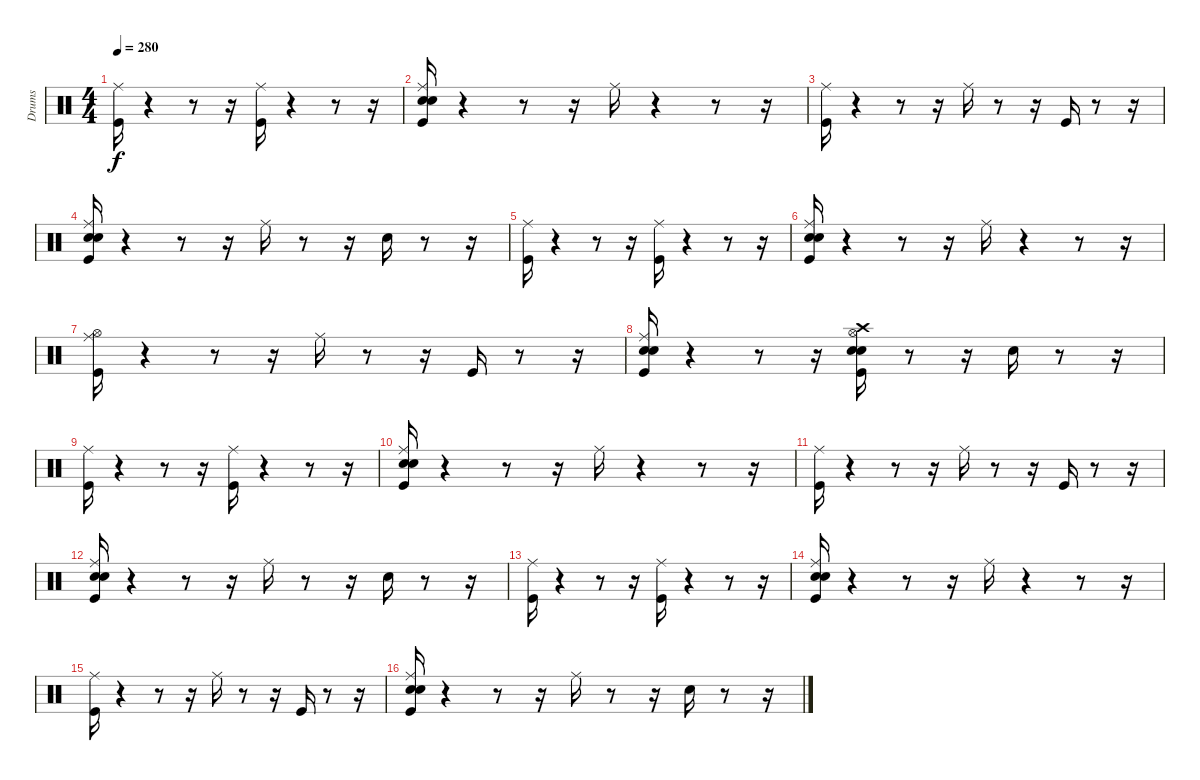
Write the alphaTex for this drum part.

\track ("Drums" "Drums") {instrument percussion}
\staff {score}
\articulation defaults
\ts (4 4)
\tempo 280
\clef neutral
\ks c
("Kick (hit)" "Ride (middle)").16{dy f} r.4 r.8 r.16 ("Kick (hit)" "Ride (middle)").16 r.4 r.8 r.16 |
("Kick (hit)" "Snare (hit) 2" "Electric Snare (hit)" "Ride (middle)").16 r.4 r.8 r.16 "Ride (middle)".16 r.4 r.8 r.16 |
("Ride (middle)" "Kick (hit)").16 r.4 r.8 r.16 "Ride (middle)".16 r.8 r.16 "Kick (hit)".16 r.8 r.16 |
("Kick (hit)" "Snare (hit) 2" "Electric Snare (hit)" "Ride (middle)").16 r.4 r.8 r.16 "Ride (middle)".16 r.8 r.16 "Snare (hit) 2".16 r.8 r.16 |
("Kick (hit)" "Ride (middle)").16 r.4 r.8 r.16 ("Kick (hit)" "Ride (middle)").16 r.4 r.8 r.16 |
("Kick (hit)" "Snare (hit) 2" "Electric Snare (hit)" "Ride (middle)").16 r.4 r.8 r.16 "Ride (middle)".16 r.4 r.8 r.16 |
("Ride (middle)" "Hi-Hat (open)" "Kick (hit)").16 r.4 r.8 r.16 "Ride (middle)".16 r.8 r.16 "Kick (hit)".16 r.8 r.16 |
("Kick (hit)" "Snare (hit) 2" "Electric Snare (hit)" "Ride (middle)").16 r.4 r.8 r.16 ("Kick (hit)" "Snare (hit) 2" "Crash high (hit)" "Electric Snare (hit)" "Hi-Hat (open)").16 r.8 r.16 "Snare (hit) 2".16 r.8 r.16 |
("Kick (hit)" "Ride (middle)").16 r.4 r.8 r.16 ("Kick (hit)" "Ride (middle)").16 r.4 r.8 r.16 |
("Kick (hit)" "Snare (hit) 2" "Electric Snare (hit)" "Ride (middle)").16 r.4 r.8 r.16 "Ride (middle)".16 r.4 r.8 r.16 |
("Ride (middle)" "Kick (hit)").16 r.4 r.8 r.16 "Ride (middle)".16 r.8 r.16 "Kick (hit)".16 r.8 r.16 |
("Kick (hit)" "Snare (hit) 2" "Electric Snare (hit)" "Ride (middle)").16 r.4 r.8 r.16 "Ride (middle)".16 r.8 r.16 "Snare (hit) 2".16 r.8 r.16 |
("Kick (hit)" "Ride (middle)").16 r.4 r.8 r.16 ("Kick (hit)" "Ride (middle)").16 r.4 r.8 r.16 |
("Kick (hit)" "Snare (hit) 2" "Electric Snare (hit)" "Ride (middle)").16 r.4 r.8 r.16 "Ride (middle)".16 r.4 r.8 r.16 |
("Kick (hit)" "Ride (middle)").16 r.4 r.8 r.16 "Ride (middle)".16 r.8 r.16 "Kick (hit)".16 r.8 r.16 |
("Kick (hit)" "Snare (hit) 2" "Electric Snare (hit)" "Ride (middle)").16 r.4 r.8 r.16 "Ride (middle)".16 r.8 r.16 "Snare (hit) 2".16 r.8 r.16
